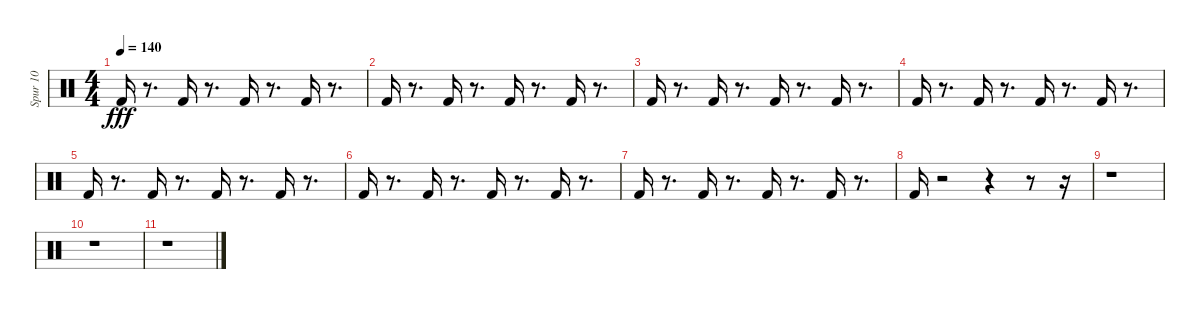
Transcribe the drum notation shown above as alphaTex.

\track ("Spur 10" "Spur 10") {instrument percussion}
\staff {score}
\articulation defaults
\ts (4 4)
\tempo 140
\clef neutral
\ks c "Kick (hit) 2".16{dy fff}
r.8{d} "Kick (hit) 2".16 r.8{d} "Kick (hit) 2".16 r.8{d} "Kick (hit) 2".16 r.8{d} |
"Kick (hit) 2".16 r.8{d} "Kick (hit) 2".16 r.8{d} "Kick (hit) 2".16 r.8{d} "Kick (hit) 2".16 r.8{d} |
"Kick (hit) 2".16 r.8{d} "Kick (hit) 2".16 r.8{d} "Kick (hit) 2".16 r.8{d} "Kick (hit) 2".16 r.8{d} |
"Kick (hit) 2".16 r.8{d} "Kick (hit) 2".16 r.8{d} "Kick (hit) 2".16 r.8{d} "Kick (hit) 2".16 r.8{d} |
"Kick (hit) 2".16 r.8{d} "Kick (hit) 2".16 r.8{d} "Kick (hit) 2".16 r.8{d} "Kick (hit) 2".16 r.8{d} |
"Kick (hit) 2".16 r.8{d} "Kick (hit) 2".16 r.8{d} "Kick (hit) 2".16 r.8{d} "Kick (hit) 2".16 r.8{d} |
"Kick (hit) 2".16 r.8{d} "Kick (hit) 2".16 r.8{d} "Kick (hit) 2".16 r.8{d} "Kick (hit) 2".16 r.8{d} |
"Kick (hit) 2".16 r.2 r.4 r.8 r.16 |
r.1 |
r.1 |
r.1
